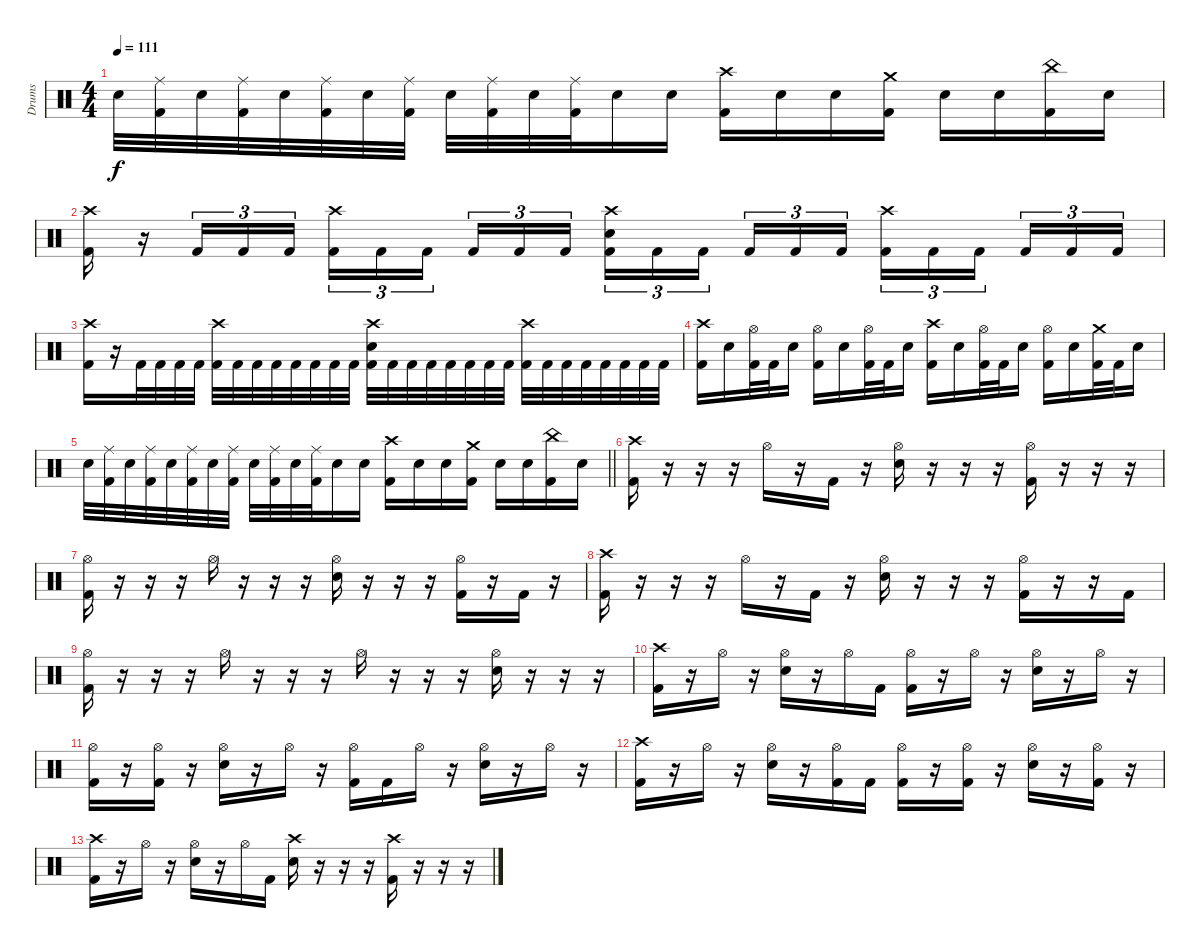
\track ("Drums" "Drums") {instrument percussion}
\staff
\articulation defaults
\ts (4 4)
\tempo 111
\clef neutral
\ks c "Electric Snare (hit)".32{dy f}
("Ride (middle)" "Kick (hit) 2").32 "Electric Snare (hit)".32 ("Ride (middle)" "Kick (hit) 2").32 "Electric Snare (hit)".32 ("Ride (middle)" "Kick (hit) 2").32 "Electric Snare (hit)".32 ("Ride (middle)" "Kick (hit) 2").32 "Electric Snare (hit)".32 ("Ride (middle)" "Kick (hit) 2").32 "Electric Snare (hit)".32 ("Ride (middle)" "Kick (hit) 2").32 "Electric Snare (hit)".16 "Electric Snare (hit)".16 ("Crash high (hit)" "Kick (hit) 2").16 "Electric Snare (hit)".16 "Electric Snare (hit)".16 ("Crash medium (hit)" "Kick (hit) 2").16 "Electric Snare (hit)".16 "Electric Snare (hit)".16 ("China (hit)" "Kick (hit) 2").16 "Electric Snare (hit)".16 |
("Crash high (hit)" "Kick (hit) 2").16 r.16 "Kick (hit) 2".16{tu (3 2)} "Kick (hit) 2".16{tu (3 2)} "Kick (hit) 2".16{tu (3 2)} ("Crash high (hit)" "Kick (hit) 2").16{tu (3 2)} "Kick (hit) 2".16{tu (3 2)} "Kick (hit) 2".16{tu (3 2) beam splitsecondary} "Kick (hit) 2".16{tu (3 2)} "Kick (hit) 2".16{tu (3 2)} "Kick (hit) 2".16{tu (3 2)} ("Crash high (hit)" "Electric Snare (hit)" "Kick (hit) 2").16{tu (3 2)} "Kick (hit) 2".16{tu (3 2)} "Kick (hit) 2".16{tu (3 2) beam splitsecondary} "Kick (hit) 2".16{tu (3 2)} "Kick (hit) 2".16{tu (3 2)} "Kick (hit) 2".16{tu (3 2)} ("Crash high (hit)" "Kick (hit) 2").16{tu (3 2)} "Kick (hit) 2".16{tu (3 2)} "Kick (hit) 2".16{tu (3 2) beam splitsecondary} "Kick (hit) 2".16{tu (3 2)} "Kick (hit) 2".16{tu (3 2)} "Kick (hit) 2".16{tu (3 2)} |
("Crash high (hit)" "Kick (hit) 2").16 r.16 "Kick (hit) 2".32 "Kick (hit) 2".32 "Kick (hit) 2".32 "Kick (hit) 2".32 ("Crash high (hit)" "Kick (hit) 2").32 "Kick (hit) 2".32 "Kick (hit) 2".32 "Kick (hit) 2".32 "Kick (hit) 2".32 "Kick (hit) 2".32 "Kick (hit) 2".32 "Kick (hit) 2".32 ("Crash high (hit)" "Electric Snare (hit)" "Kick (hit) 2").32 "Kick (hit) 2".32 "Kick (hit) 2".32 "Kick (hit) 2".32 "Kick (hit) 2".32 "Kick (hit) 2".32 "Kick (hit) 2".32 "Kick (hit) 2".32 ("Crash high (hit)" "Kick (hit) 2").32 "Kick (hit) 2".32 "Kick (hit) 2".32 "Kick (hit) 2".32 "Kick (hit) 2".32 "Kick (hit) 2".32 "Kick (hit) 2".32 "Kick (hit) 2".32 |
("Crash high (hit)" "Kick (hit) 2").16 "Electric Snare (hit)".16 ("Hi-Hat (open)" "Kick (hit) 2").32 "Kick (hit) 2".32 "Electric Snare (hit)".16 ("Hi-Hat (open)" "Kick (hit) 2").16 "Electric Snare (hit)".16 ("Hi-Hat (open)" "Kick (hit) 2").32 "Kick (hit) 2".32 "Electric Snare (hit)".16 ("Crash high (hit)" "Kick (hit) 2").16 "Electric Snare (hit)".16 ("Hi-Hat (open)" "Kick (hit) 2").32 "Kick (hit) 2".32 "Electric Snare (hit)".16 ("Hi-Hat (open)" "Kick (hit) 2").16 "Electric Snare (hit)".16 ("Crash medium (hit)" "Kick (hit) 2").32 "Kick (hit) 2".32 "Electric Snare (hit)".16 |
\barLineRight lightlight "Electric Snare (hit)".32
("Ride (middle)" "Kick (hit) 2").32 "Electric Snare (hit)".32 ("Ride (middle)" "Kick (hit) 2").32 "Electric Snare (hit)".32 ("Ride (middle)" "Kick (hit) 2").32 "Electric Snare (hit)".32 ("Ride (middle)" "Kick (hit) 2").32 "Electric Snare (hit)".32 ("Ride (middle)" "Kick (hit) 2").32 "Electric Snare (hit)".32 ("Ride (middle)" "Kick (hit) 2").32 "Electric Snare (hit)".16 "Electric Snare (hit)".16 ("Crash high (hit)" "Kick (hit) 2").16 "Electric Snare (hit)".16 "Electric Snare (hit)".16 ("Crash medium (hit)" "Kick (hit) 2").16 "Electric Snare (hit)".16 "Electric Snare (hit)".16 ("China (hit)" "Kick (hit) 2").16 "Electric Snare (hit)".16 |
\section ("" "")
("Crash high (hit)" "Kick (hit) 2").16 r.16 r.16 r.16 "Hi-Hat (open)".16 r.16 "Kick (hit) 2".16 r.16 ("Hi-Hat (open)" "Electric Snare (hit)").16 r.16 r.16 r.16 ("Hi-Hat (open)" "Kick (hit) 2").16 r.16 r.16 r.16 |
("Hi-Hat (open)" "Kick (hit) 2").16 r.16 r.16 r.16 "Hi-Hat (open)".16 r.16 r.16 r.16 ("Hi-Hat (open)" "Electric Snare (hit)").16 r.16 r.16 r.16 ("Hi-Hat (open)" "Kick (hit) 2").16 r.16 "Kick (hit) 2".16 r.16 |
("Crash high (hit)" "Kick (hit) 2").16 r.16 r.16 r.16 "Hi-Hat (open)".16 r.16 "Kick (hit) 2".16 r.16 ("Hi-Hat (open)" "Electric Snare (hit)").16 r.16 r.16 r.16 ("Hi-Hat (open)" "Kick (hit) 2").16 r.16 r.16 "Kick (hit) 2".16 |
("Hi-Hat (open)" "Kick (hit) 2").16 r.16 r.16 r.16 "Hi-Hat (open)".16 r.16 r.16 r.16 "Hi-Hat (open)".16 r.16 r.16 r.16 ("Hi-Hat (open)" "Electric Snare (hit)").16 r.16 r.16 r.16 |
("Crash high (hit)" "Kick (hit) 2").16 r.16 "Hi-Hat (open)".16 r.16 ("Hi-Hat (open)" "Electric Snare (hit)").16 r.16 "Hi-Hat (open)".16 "Kick (hit) 2".16 ("Hi-Hat (open)" "Kick (hit) 2").16 r.16 "Hi-Hat (open)".16 r.16 ("Hi-Hat (open)" "Electric Snare (hit)").16 r.16 "Hi-Hat (open)".16 r.16 |
("Hi-Hat (open)" "Kick (hit) 2").16 r.16 ("Hi-Hat (open)" "Kick (hit) 2").16 r.16 ("Hi-Hat (open)" "Electric Snare (hit)").16 r.16 "Hi-Hat (open)".16 r.16 ("Hi-Hat (open)" "Kick (hit) 2").16 "Kick (hit) 2".16 "Hi-Hat (open)".16 r.16 ("Hi-Hat (open)" "Electric Snare (hit)").16 r.16 "Hi-Hat (open)".16 r.16 |
("Crash high (hit)" "Kick (hit) 2").16 r.16 "Hi-Hat (open)".16 r.16 ("Hi-Hat (open)" "Electric Snare (hit)").16 r.16 ("Hi-Hat (open)" "Kick (hit) 2").16 "Kick (hit) 2".16 ("Hi-Hat (open)" "Kick (hit) 2").16 r.16 ("Hi-Hat (open)" "Kick (hit) 2").16 r.16 ("Hi-Hat (open)" "Electric Snare (hit)").16 r.16 ("Hi-Hat (open)" "Kick (hit) 2").16 r.16 |
("Crash high (hit)" "Kick (hit) 2").16 r.16 "Hi-Hat (open)".16 r.16 ("Hi-Hat (open)" "Electric Snare (hit)").16 r.16 "Hi-Hat (open)".16 "Kick (hit) 2".16 ("Crash high (hit)" "Electric Snare (hit)").16 r.16 r.16 r.16 ("Crash high (hit)" "Kick (hit) 2").16 r.16 r.16 r.16
